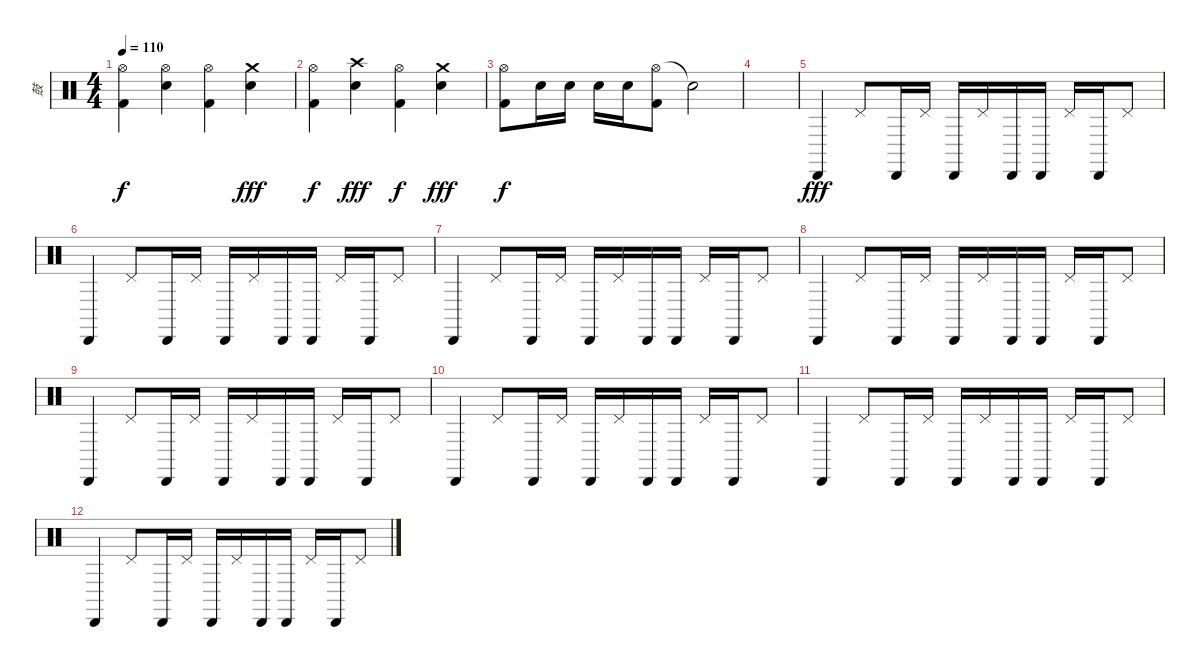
\track ("鼓" "鼓") {instrument percussion}
\staff {score}
\articulation defaults
\ts (4 4)
\tempo 110
\clef neutral
\ks c
("Hi-Hat (open)" "Kick (hit) 2").4{dy f} ("Hi-Hat (open)" "Electric Snare (hit)").4 ("Hi-Hat (open)" "Kick (hit) 2").4 ("Crash medium (hit)" "Electric Snare (hit)").4{dy fff} |
("Hi-Hat (open)" "Kick (hit) 2").4{dy f} ("Crash high (hit)" "Electric Snare (hit)").4{dy fff} ("Hi-Hat (open)" "Kick (hit) 2").4{dy f} ("Crash medium (hit)" "Electric Snare (hit)").4{dy fff} |
("Hi-Hat (open)" "Kick (hit) 2").8{dy f} "Electric Snare (hit)".16 "Electric Snare (hit)".16 "Electric Snare (hit)".16 "Electric Snare (hit)".16 ("Hi-Hat (open)" "Kick (hit) 2").8 "Snare (hit)"{t}.2 |
|
"Cabasa (hit)".4{dy fff} "Pedal Hi-Hat (hit)".8 "Cabasa (hit)".16 "Pedal Hi-Hat (hit)".16 "Cabasa (hit)".16 "Pedal Hi-Hat (hit)".16 "Cabasa (hit)".16 "Cabasa (hit)".16 "Pedal Hi-Hat (hit)".16 "Cabasa (hit)".16 "Pedal Hi-Hat (hit)".8 |
"Cabasa (hit)".4 "Pedal Hi-Hat (hit)".8 "Cabasa (hit)".16 "Pedal Hi-Hat (hit)".16 "Cabasa (hit)".16 "Pedal Hi-Hat (hit)".16 "Cabasa (hit)".16 "Cabasa (hit)".16 "Pedal Hi-Hat (hit)".16 "Cabasa (hit)".16 "Pedal Hi-Hat (hit)".8 |
"Cabasa (hit)".4 "Pedal Hi-Hat (hit)".8 "Cabasa (hit)".16 "Pedal Hi-Hat (hit)".16 "Cabasa (hit)".16 "Pedal Hi-Hat (hit)".16 "Cabasa (hit)".16 "Cabasa (hit)".16 "Pedal Hi-Hat (hit)".16 "Cabasa (hit)".16 "Pedal Hi-Hat (hit)".8 |
"Cabasa (hit)".4 "Pedal Hi-Hat (hit)".8 "Cabasa (hit)".16 "Pedal Hi-Hat (hit)".16 "Cabasa (hit)".16 "Pedal Hi-Hat (hit)".16 "Cabasa (hit)".16 "Cabasa (hit)".16 "Pedal Hi-Hat (hit)".16 "Cabasa (hit)".16 "Pedal Hi-Hat (hit)".8 |
"Cabasa (hit)".4 "Pedal Hi-Hat (hit)".8 "Cabasa (hit)".16 "Pedal Hi-Hat (hit)".16 "Cabasa (hit)".16 "Pedal Hi-Hat (hit)".16 "Cabasa (hit)".16 "Cabasa (hit)".16 "Pedal Hi-Hat (hit)".16 "Cabasa (hit)".16 "Pedal Hi-Hat (hit)".8 |
"Cabasa (hit)".4 "Pedal Hi-Hat (hit)".8 "Cabasa (hit)".16 "Pedal Hi-Hat (hit)".16 "Cabasa (hit)".16 "Pedal Hi-Hat (hit)".16 "Cabasa (hit)".16 "Cabasa (hit)".16 "Pedal Hi-Hat (hit)".16 "Cabasa (hit)".16 "Pedal Hi-Hat (hit)".8 |
"Cabasa (hit)".4 "Pedal Hi-Hat (hit)".8 "Cabasa (hit)".16 "Pedal Hi-Hat (hit)".16 "Cabasa (hit)".16 "Pedal Hi-Hat (hit)".16 "Cabasa (hit)".16 "Cabasa (hit)".16 "Pedal Hi-Hat (hit)".16 "Cabasa (hit)".16 "Pedal Hi-Hat (hit)".8 |
"Cabasa (hit)".4 "Pedal Hi-Hat (hit)".8 "Cabasa (hit)".16 "Pedal Hi-Hat (hit)".16 "Cabasa (hit)".16 "Pedal Hi-Hat (hit)".16 "Cabasa (hit)".16 "Cabasa (hit)".16 "Pedal Hi-Hat (hit)".16 "Cabasa (hit)".16 "Pedal Hi-Hat (hit)".8
